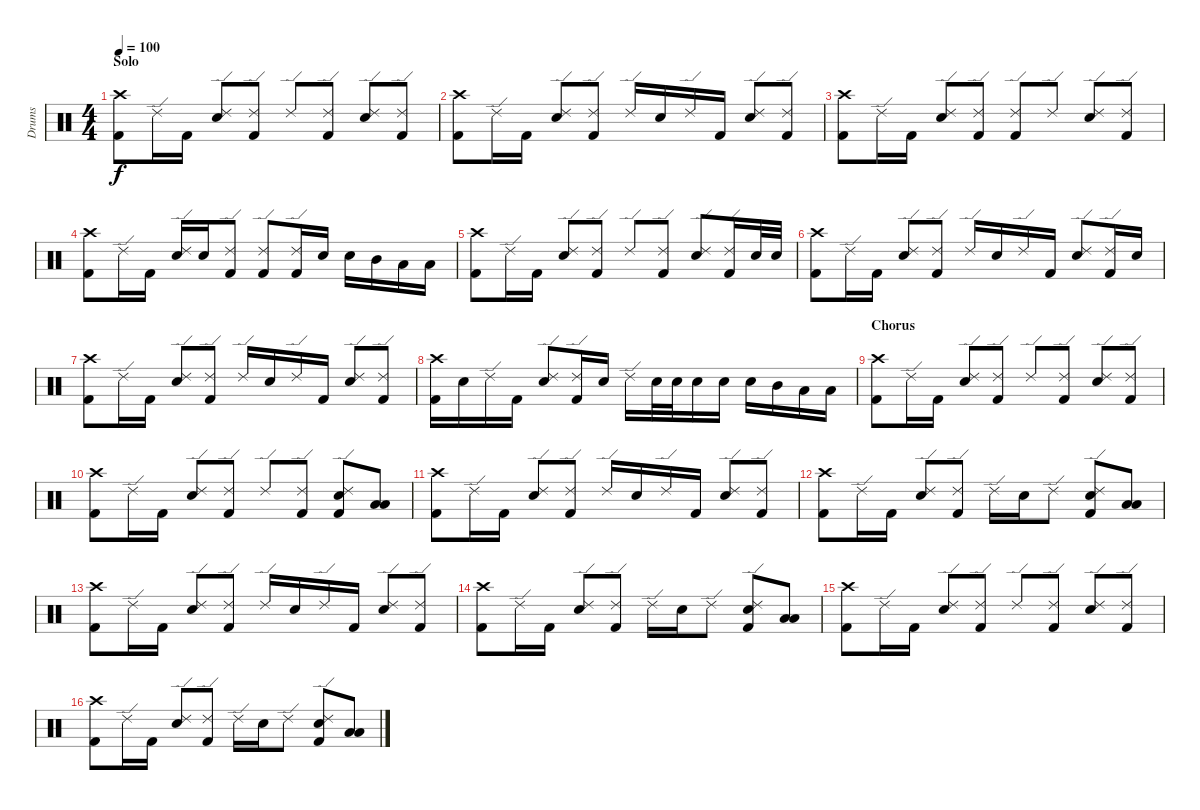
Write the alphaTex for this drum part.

\track ("Drums" "Drums") {instrument percussion}
\staff {score}
\articulation defaults
\ts (4 4)
\section ("" "Solo")
\tempo 100
\clef neutral
\ks c
("Crash high (hit)" "Kick (hit) 2").8{dy f} "Ride (edge) 2".16 "Kick (hit) 2".16 ("Ride (edge) 2" "Electric Snare (hit)").8 ("Ride (edge) 2" "Kick (hit) 2").8 "Ride (edge) 2".8 ("Ride (edge) 2" "Kick (hit) 2").8 ("Ride (edge) 2" "Electric Snare (hit)").8 ("Ride (edge) 2" "Kick (hit) 2").8 |
("Crash high (hit)" "Kick (hit) 2").8 "Ride (edge) 2".16 "Kick (hit) 2".16 ("Ride (edge) 2" "Electric Snare (hit)").8 ("Ride (edge) 2" "Kick (hit) 2").8 "Ride (edge) 2".16 "Electric Snare (hit)".16 "Ride (edge) 2".16 "Kick (hit) 2".16 ("Ride (edge) 2" "Electric Snare (hit)").8 ("Ride (edge) 2" "Kick (hit) 2").8 |
("Crash high (hit)" "Kick (hit) 2").8 "Ride (edge) 2".16 "Kick (hit) 2".16 ("Ride (edge) 2" "Electric Snare (hit)").8 ("Ride (edge) 2" "Kick (hit) 2").8 ("Ride (edge) 2" "Kick (hit) 2").8 "Ride (edge) 2".8 ("Ride (edge) 2" "Electric Snare (hit)").8 ("Ride (edge) 2" "Kick (hit) 2").8 |
("Crash high (hit)" "Kick (hit) 2").8 "Ride (edge) 2".16 "Kick (hit) 2".16 ("Ride (edge) 2" "Electric Snare (hit)").16 "Electric Snare (hit)".16 ("Ride (edge) 2" "Kick (hit) 2").8 ("Ride (edge) 2" "Kick (hit) 2").8 ("Ride (edge) 2" "Kick (hit) 2").16 "Electric Snare (hit)".16 "Electric Snare (hit)".16 "Mid Tom (hit)".16 "Low Tom (hit)".16 "Low Floor Tom (hit)".16 |
("Crash high (hit)" "Kick (hit) 2").8 "Ride (edge) 2".16 "Kick (hit) 2".16 ("Ride (edge) 2" "Electric Snare (hit)").8 ("Ride (edge) 2" "Kick (hit) 2").8 "Ride (edge) 2".8 ("Ride (edge) 2" "Kick (hit) 2").8 ("Ride (edge) 2" "Electric Snare (hit)").8 ("Ride (edge) 2" "Kick (hit) 2").16 "Electric Snare (hit)".32 "Electric Snare (hit)".32 |
("Crash high (hit)" "Kick (hit) 2").8 "Ride (edge) 2".16 "Kick (hit) 2".16 ("Ride (edge) 2" "Electric Snare (hit)").8 ("Ride (edge) 2" "Kick (hit) 2").8 "Ride (edge) 2".16 "Electric Snare (hit)".16 "Ride (edge) 2".16 "Kick (hit) 2".16 ("Ride (edge) 2" "Electric Snare (hit)").8 ("Ride (edge) 2" "Kick (hit) 2").16 "Electric Snare (hit)".16 |
("Crash high (hit)" "Kick (hit) 2").8 "Ride (edge) 2".16 "Kick (hit) 2".16 ("Ride (edge) 2" "Electric Snare (hit)").8 ("Ride (edge) 2" "Kick (hit) 2").8 "Ride (edge) 2".16 "Electric Snare (hit)".16 "Ride (edge) 2".16 "Kick (hit) 2".16 ("Ride (edge) 2" "Electric Snare (hit)").8 ("Ride (edge) 2" "Kick (hit) 2").8 |
("Crash high (hit)" "Kick (hit) 2").16 "Electric Snare (hit)".16 "Ride (edge) 2".16 "Kick (hit) 2".16 ("Ride (edge) 2" "Electric Snare (hit)").8 ("Ride (edge) 2" "Kick (hit) 2").16 "Electric Snare (hit)".16 "Ride (edge) 2".16 "Electric Snare (hit)".32 "Electric Snare (hit)".32 "Electric Snare (hit)".16 "Electric Snare (hit)".16 "Electric Snare (hit)".16 "Mid Tom (hit)".16 "Low Tom (hit)".16 "Low Floor Tom (hit)".16 |
\section ("" "Chorus")
("Crash high (hit)" "Kick (hit) 2").8 "Ride (edge) 2".16 "Kick (hit) 2".16 ("Ride (edge) 2" "Electric Snare (hit)").8 ("Ride (edge) 2" "Kick (hit) 2").8 "Ride (edge) 2".8 ("Ride (edge) 2" "Kick (hit) 2").8 ("Ride (edge) 2" "Electric Snare (hit)").8 ("Ride (edge) 2" "Kick (hit) 2").8 |
("Crash high (hit)" "Kick (hit) 2").8 "Ride (edge) 2".16 "Kick (hit) 2".16 ("Ride (edge) 2" "Electric Snare (hit)").8 ("Ride (edge) 2" "Kick (hit) 2").8 "Ride (edge) 2".8 ("Ride (edge) 2" "Kick (hit) 2").8 ("Ride (edge) 2" "Electric Snare (hit)" "Kick (hit) 2").8 ("Low Tom (hit)" "Low Floor Tom (hit)").8 |
("Crash high (hit)" "Kick (hit) 2").8 "Ride (edge) 2".16 "Kick (hit) 2".16 ("Ride (edge) 2" "Electric Snare (hit)").8 ("Ride (edge) 2" "Kick (hit) 2").8 "Ride (edge) 2".16 "Electric Snare (hit)".16 "Ride (edge) 2".16 "Kick (hit) 2".16 ("Ride (edge) 2" "Electric Snare (hit)").8 ("Ride (edge) 2" "Kick (hit) 2").8 |
("Crash high (hit)" "Kick (hit) 2").8 "Ride (edge) 2".16 "Kick (hit) 2".16 ("Ride (edge) 2" "Electric Snare (hit)").8 ("Ride (edge) 2" "Kick (hit) 2").8 "Ride (edge) 2".16 "Electric Snare (hit)".16 "Ride (edge) 2".8 ("Ride (edge) 2" "Electric Snare (hit)" "Kick (hit) 2").8 ("Low Tom (hit)" "Low Floor Tom (hit)").8 |
("Crash high (hit)" "Kick (hit) 2").8 "Ride (edge) 2".16 "Kick (hit) 2".16 ("Ride (edge) 2" "Electric Snare (hit)").8 ("Ride (edge) 2" "Kick (hit) 2").8 "Ride (edge) 2".16 "Electric Snare (hit)".16 "Ride (edge) 2".16 "Kick (hit) 2".16 ("Ride (edge) 2" "Electric Snare (hit)").8 ("Ride (edge) 2" "Kick (hit) 2").8 |
("Crash high (hit)" "Kick (hit) 2").8 "Ride (edge) 2".16 "Kick (hit) 2".16 ("Ride (edge) 2" "Electric Snare (hit)").8 ("Ride (edge) 2" "Kick (hit) 2").8 "Ride (edge) 2".16 "Electric Snare (hit)".16 "Ride (edge) 2".8 ("Ride (edge) 2" "Electric Snare (hit)" "Kick (hit) 2").8 ("Low Tom (hit)" "Low Floor Tom (hit)").8 |
("Crash high (hit)" "Kick (hit) 2").8 "Ride (edge) 2".16 "Kick (hit) 2".16 ("Ride (edge) 2" "Electric Snare (hit)").8 ("Ride (edge) 2" "Kick (hit) 2").8 "Ride (edge) 2".8 ("Ride (edge) 2" "Kick (hit) 2").8 ("Ride (edge) 2" "Electric Snare (hit)").8 ("Ride (edge) 2" "Kick (hit) 2").8 |
("Crash high (hit)" "Kick (hit) 2").8 "Ride (edge) 2".16 "Kick (hit) 2".16 ("Ride (edge) 2" "Electric Snare (hit)").8 ("Ride (edge) 2" "Kick (hit) 2").8 "Ride (edge) 2".16 "Electric Snare (hit)".16 "Ride (edge) 2".8 ("Ride (edge) 2" "Electric Snare (hit)" "Kick (hit) 2").8 ("Low Tom (hit)" "Low Floor Tom (hit)").8
